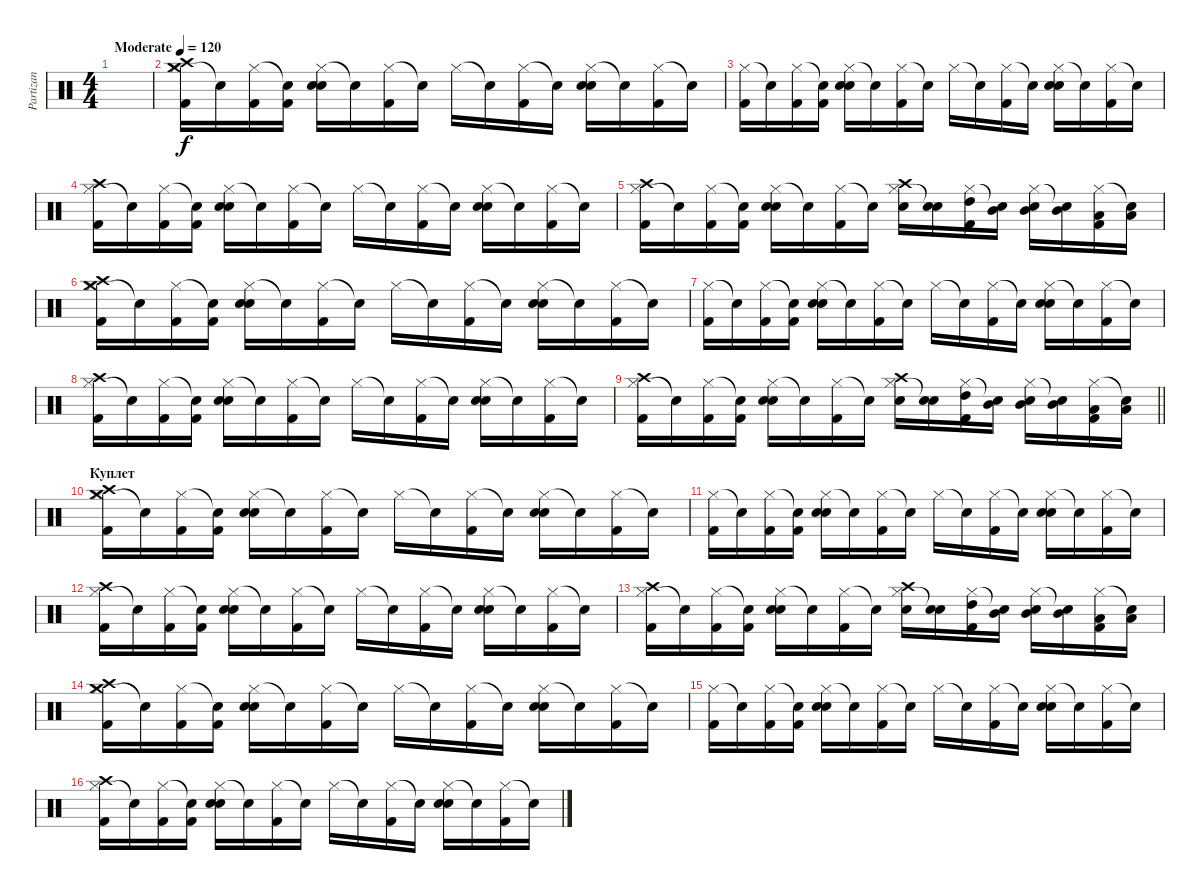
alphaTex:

\track ("Partizan" "Partizan") {instrument percussion}
\staff {score}
\articulation defaults
\ts (4 4)
\tempo (120 "Moderate")
\clef neutral
\ks c
|
("Hi-Hat (closed)" "Crash high (hit)" "Crash medium (hit)" "Kick (hit) 2").16 "Snare (hit)"{t}.16 ("Hi-Hat (closed)" "Kick (hit) 2").16 ("Snare (hit)"{t} "Kick (hit) 2").16 ("Hi-Hat (closed)" "Electric Snare (hit)" "Snare (hit) 2").16 "Snare (hit)"{t}.16 ("Hi-Hat (closed)" "Kick (hit) 2").16 "Snare (hit)"{t}.16 "Hi-Hat (closed)".16 "Snare (hit)"{t}.16 ("Hi-Hat (closed)" "Kick (hit) 2").16 "Snare (hit)"{t}.16 ("Hi-Hat (closed)" "Electric Snare (hit)" "Snare (hit) 2").16 "Snare (hit)"{t}.16 ("Hi-Hat (closed)" "Kick (hit) 2").16 "Snare (hit)"{t}.16 |
("Hi-Hat (closed)" "Kick (hit) 2").16 "Snare (hit)"{t}.16 ("Hi-Hat (closed)" "Kick (hit) 2").16 ("Snare (hit)"{t} "Kick (hit) 2").16 ("Hi-Hat (closed)" "Electric Snare (hit)" "Snare (hit) 2").16 "Snare (hit)"{t}.16 ("Hi-Hat (closed)" "Kick (hit) 2").16 "Snare (hit)"{t}.16 "Hi-Hat (closed)".16 "Snare (hit)"{t}.16 ("Hi-Hat (closed)" "Kick (hit) 2").16 "Snare (hit)"{t}.16 ("Hi-Hat (closed)" "Electric Snare (hit)" "Snare (hit) 2").16 "Snare (hit)"{t}.16 ("Hi-Hat (closed)" "Kick (hit) 2").16 "Snare (hit)"{t}.16 |
("Hi-Hat (closed)" "Crash high (hit)" "Kick (hit) 2").16 "Snare (hit)"{t}.16 ("Hi-Hat (closed)" "Kick (hit) 2").16 ("Snare (hit)"{t} "Kick (hit) 2").16 ("Hi-Hat (closed)" "Electric Snare (hit)" "Snare (hit) 2").16 "Snare (hit)"{t}.16 ("Hi-Hat (closed)" "Kick (hit) 2").16 "Snare (hit)"{t}.16 "Hi-Hat (closed)".16 "Snare (hit)"{t}.16 ("Hi-Hat (closed)" "Kick (hit) 2").16 "Snare (hit)"{t}.16 ("Hi-Hat (closed)" "Electric Snare (hit)" "Snare (hit) 2").16 "Snare (hit)"{t}.16 ("Hi-Hat (closed)" "Kick (hit) 2").16 "Snare (hit)"{t}.16 |
("Hi-Hat (closed)" "Crash high (hit)" "Kick (hit) 2").16 "Snare (hit)"{t}.16 ("Hi-Hat (closed)" "Kick (hit) 2").16 ("Snare (hit)"{t} "Kick (hit) 2").16 ("Hi-Hat (closed)" "Electric Snare (hit)" "Snare (hit) 2").16 "Snare (hit)"{t}.16 ("Hi-Hat (closed)" "Kick (hit) 2").16 "Snare (hit)"{t}.16 ("Hi-Hat (closed)" "Crash high (hit)" "Electric Snare (hit)").16 ("Snare (hit)"{t} "Electric Snare (hit)").16 ("Hi-Hat (closed)" "High Tom (hit)" "Kick (hit) 2").16 ("Snare (hit)"{t} "Mid Tom (hit)").16 ("Hi-Hat (closed)" "Electric Snare (hit)" "Mid Tom (hit)").16 ("Snare (hit)"{t} "Mid Tom (hit)").16 ("Hi-Hat (closed)" "Low Tom (hit)" "Kick (hit) 2").16 ("Snare (hit)"{t} "Low Tom (hit)").16 |
("Hi-Hat (closed)" "Crash medium (hit)" "Crash high (hit)" "Kick (hit) 2").16 "Snare (hit)"{t}.16 ("Hi-Hat (closed)" "Kick (hit) 2").16 ("Snare (hit)"{t} "Kick (hit) 2").16 ("Hi-Hat (closed)" "Electric Snare (hit)" "Snare (hit) 2").16 "Snare (hit)"{t}.16 ("Hi-Hat (closed)" "Kick (hit) 2").16 "Snare (hit)"{t}.16 "Hi-Hat (closed)".16 "Snare (hit)"{t}.16 ("Hi-Hat (closed)" "Kick (hit) 2").16 "Snare (hit)"{t}.16 ("Hi-Hat (closed)" "Electric Snare (hit)" "Snare (hit) 2").16 "Snare (hit)"{t}.16 ("Hi-Hat (closed)" "Kick (hit) 2").16 "Snare (hit)"{t}.16 |
("Hi-Hat (closed)" "Kick (hit) 2").16 "Snare (hit)"{t}.16 ("Hi-Hat (closed)" "Kick (hit) 2").16 ("Snare (hit)"{t} "Kick (hit) 2").16 ("Hi-Hat (closed)" "Electric Snare (hit)" "Snare (hit) 2").16 "Snare (hit)"{t}.16 ("Hi-Hat (closed)" "Kick (hit) 2").16 "Snare (hit)"{t}.16 "Hi-Hat (closed)".16 "Snare (hit)"{t}.16 ("Hi-Hat (closed)" "Kick (hit) 2").16 "Snare (hit)"{t}.16 ("Hi-Hat (closed)" "Electric Snare (hit)" "Snare (hit) 2").16 "Snare (hit)"{t}.16 ("Hi-Hat (closed)" "Kick (hit) 2").16 "Snare (hit)"{t}.16 |
("Hi-Hat (closed)" "Crash high (hit)" "Kick (hit) 2").16 "Snare (hit)"{t}.16 ("Hi-Hat (closed)" "Kick (hit) 2").16 ("Snare (hit)"{t} "Kick (hit) 2").16 ("Hi-Hat (closed)" "Electric Snare (hit)" "Snare (hit) 2").16 "Snare (hit)"{t}.16 ("Hi-Hat (closed)" "Kick (hit) 2").16 "Snare (hit)"{t}.16 "Hi-Hat (closed)".16 "Snare (hit)"{t}.16 ("Hi-Hat (closed)" "Kick (hit) 2").16 "Snare (hit)"{t}.16 ("Hi-Hat (closed)" "Electric Snare (hit)" "Snare (hit) 2").16 "Snare (hit)"{t}.16 ("Hi-Hat (closed)" "Kick (hit) 2").16 "Snare (hit)"{t}.16 |
\barLineRight lightlight
("Hi-Hat (closed)" "Crash high (hit)" "Kick (hit) 2").16 "Snare (hit)"{t}.16 ("Hi-Hat (closed)" "Kick (hit) 2").16 ("Snare (hit)"{t} "Kick (hit) 2").16 ("Hi-Hat (closed)" "Electric Snare (hit)" "Snare (hit) 2").16 "Snare (hit)"{t}.16 ("Hi-Hat (closed)" "Kick (hit) 2").16 "Snare (hit)"{t}.16 ("Hi-Hat (closed)" "Crash high (hit)" "Electric Snare (hit)").16 ("Snare (hit)"{t} "Electric Snare (hit)").16 ("Hi-Hat (closed)" "High Tom (hit)" "Kick (hit) 2").16 ("Snare (hit)"{t} "Mid Tom (hit)").16 ("Hi-Hat (closed)" "Electric Snare (hit)" "Mid Tom (hit)").16 ("Snare (hit)"{t} "Mid Tom (hit)").16 ("Hi-Hat (closed)" "Low Tom (hit)" "Kick (hit) 2").16 ("Snare (hit)"{t} "Low Tom (hit)").16 |
\section ("" "Куплет")
("Hi-Hat (closed)" "Crash high (hit)" "Crash medium (hit)" "Kick (hit) 2").16 "Snare (hit)"{t}.16 ("Hi-Hat (closed)" "Kick (hit) 2").16 ("Snare (hit)"{t} "Kick (hit) 2").16 ("Hi-Hat (closed)" "Electric Snare (hit)" "Snare (hit) 2").16 "Snare (hit)"{t}.16 ("Hi-Hat (closed)" "Kick (hit) 2").16 "Snare (hit)"{t}.16 "Hi-Hat (closed)".16 "Snare (hit)"{t}.16 ("Hi-Hat (closed)" "Kick (hit) 2").16 "Snare (hit)"{t}.16 ("Hi-Hat (closed)" "Electric Snare (hit)" "Snare (hit) 2").16 "Snare (hit)"{t}.16 ("Hi-Hat (closed)" "Kick (hit) 2").16 "Snare (hit)"{t}.16 |
("Hi-Hat (closed)" "Kick (hit) 2").16 "Snare (hit)"{t}.16 ("Hi-Hat (closed)" "Kick (hit) 2").16 ("Snare (hit)"{t} "Kick (hit) 2").16 ("Hi-Hat (closed)" "Electric Snare (hit)" "Snare (hit) 2").16 "Snare (hit)"{t}.16 ("Hi-Hat (closed)" "Kick (hit) 2").16 "Snare (hit)"{t}.16 "Hi-Hat (closed)".16 "Snare (hit)"{t}.16 ("Hi-Hat (closed)" "Kick (hit) 2").16 "Snare (hit)"{t}.16 ("Hi-Hat (closed)" "Electric Snare (hit)" "Snare (hit) 2").16 "Snare (hit)"{t}.16 ("Hi-Hat (closed)" "Kick (hit) 2").16 "Snare (hit)"{t}.16 |
("Hi-Hat (closed)" "Crash high (hit)" "Kick (hit) 2").16 "Snare (hit)"{t}.16 ("Hi-Hat (closed)" "Kick (hit) 2").16 ("Snare (hit)"{t} "Kick (hit) 2").16 ("Hi-Hat (closed)" "Electric Snare (hit)" "Snare (hit) 2").16 "Snare (hit)"{t}.16 ("Hi-Hat (closed)" "Kick (hit) 2").16 "Snare (hit)"{t}.16 "Hi-Hat (closed)".16 "Snare (hit)"{t}.16 ("Hi-Hat (closed)" "Kick (hit) 2").16 "Snare (hit)"{t}.16 ("Hi-Hat (closed)" "Electric Snare (hit)" "Snare (hit) 2").16 "Snare (hit)"{t}.16 ("Hi-Hat (closed)" "Kick (hit) 2").16 "Snare (hit)"{t}.16 |
("Hi-Hat (closed)" "Crash high (hit)" "Kick (hit) 2").16 "Snare (hit)"{t}.16 ("Hi-Hat (closed)" "Kick (hit) 2").16 ("Snare (hit)"{t} "Kick (hit) 2").16 ("Hi-Hat (closed)" "Electric Snare (hit)" "Snare (hit) 2").16 "Snare (hit)"{t}.16 ("Hi-Hat (closed)" "Kick (hit) 2").16 "Snare (hit)"{t}.16 ("Hi-Hat (closed)" "Crash high (hit)" "Electric Snare (hit)").16 ("Snare (hit)"{t} "Electric Snare (hit)").16 ("Hi-Hat (closed)" "High Tom (hit)" "Kick (hit) 2").16 ("Snare (hit)"{t} "Mid Tom (hit)").16 ("Hi-Hat (closed)" "Electric Snare (hit)" "Mid Tom (hit)").16 ("Snare (hit)"{t} "Mid Tom (hit)").16 ("Hi-Hat (closed)" "Low Tom (hit)" "Kick (hit) 2").16 ("Snare (hit)"{t} "Low Tom (hit)").16 |
("Hi-Hat (closed)" "Crash medium (hit)" "Crash high (hit)" "Kick (hit) 2").16 "Snare (hit)"{t}.16 ("Hi-Hat (closed)" "Kick (hit) 2").16 ("Snare (hit)"{t} "Kick (hit) 2").16 ("Hi-Hat (closed)" "Electric Snare (hit)" "Snare (hit) 2").16 "Snare (hit)"{t}.16 ("Hi-Hat (closed)" "Kick (hit) 2").16 "Snare (hit)"{t}.16 "Hi-Hat (closed)".16 "Snare (hit)"{t}.16 ("Hi-Hat (closed)" "Kick (hit) 2").16 "Snare (hit)"{t}.16 ("Hi-Hat (closed)" "Electric Snare (hit)" "Snare (hit) 2").16 "Snare (hit)"{t}.16 ("Hi-Hat (closed)" "Kick (hit) 2").16 "Snare (hit)"{t}.16 |
("Hi-Hat (closed)" "Kick (hit) 2").16 "Snare (hit)"{t}.16 ("Hi-Hat (closed)" "Kick (hit) 2").16 ("Snare (hit)"{t} "Kick (hit) 2").16 ("Hi-Hat (closed)" "Electric Snare (hit)" "Snare (hit) 2").16 "Snare (hit)"{t}.16 ("Hi-Hat (closed)" "Kick (hit) 2").16 "Snare (hit)"{t}.16 "Hi-Hat (closed)".16 "Snare (hit)"{t}.16 ("Hi-Hat (closed)" "Kick (hit) 2").16 "Snare (hit)"{t}.16 ("Hi-Hat (closed)" "Electric Snare (hit)" "Snare (hit) 2").16 "Snare (hit)"{t}.16 ("Hi-Hat (closed)" "Kick (hit) 2").16 "Snare (hit)"{t}.16 |
("Hi-Hat (closed)" "Crash high (hit)" "Kick (hit) 2").16 "Snare (hit)"{t}.16 ("Hi-Hat (closed)" "Kick (hit) 2").16 ("Snare (hit)"{t} "Kick (hit) 2").16 ("Hi-Hat (closed)" "Electric Snare (hit)" "Snare (hit) 2").16 "Snare (hit)"{t}.16 ("Hi-Hat (closed)" "Kick (hit) 2").16 "Snare (hit)"{t}.16 "Hi-Hat (closed)".16 "Snare (hit)"{t}.16 ("Hi-Hat (closed)" "Kick (hit) 2").16 "Snare (hit)"{t}.16 ("Hi-Hat (closed)" "Electric Snare (hit)" "Snare (hit) 2").16 "Snare (hit)"{t}.16 ("Hi-Hat (closed)" "Kick (hit) 2").16 "Snare (hit)"{t}.16
